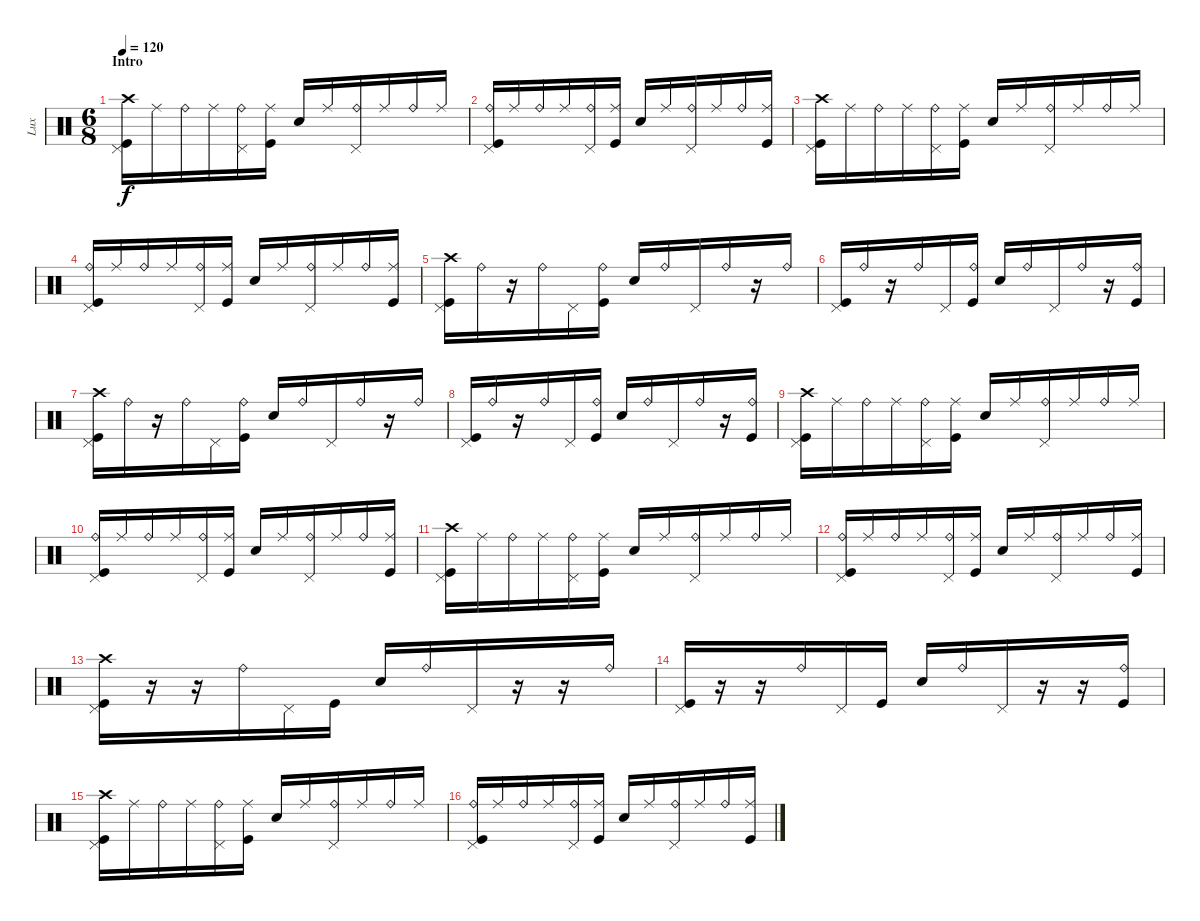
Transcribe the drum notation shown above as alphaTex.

\track ("Lux" "Lux") {instrument percussion}
\staff {score}
\articulation defaults
\ts (6 8)
\section ("" "Intro")
\tempo 120
\clef neutral
\ks c
("Crash high (hit)" "Pedal Hi-Hat (hit)" "Kick (hit)").16{dy f} "Ride (middle)".16 "Ride (bell)".16 "Ride (middle)".16 ("Ride (bell)" "Pedal Hi-Hat (hit)").16 ("Ride (middle)" "Kick (hit)").16 "Snare (hit) 2".16 "Ride (middle)".16 ("Ride (bell)" "Pedal Hi-Hat (hit)").16 "Ride (middle)".16 "Ride (bell)".16 "Ride (middle)".16 |
("Ride (bell)" "Pedal Hi-Hat (hit)" "Kick (hit)").16 "Ride (middle)".16 "Ride (bell)".16 "Ride (middle)".16 ("Ride (bell)" "Pedal Hi-Hat (hit)").16 ("Ride (middle)" "Kick (hit)").16 "Snare (hit) 2".16 "Ride (middle)".16 ("Ride (bell)" "Pedal Hi-Hat (hit)").16 "Ride (middle)".16 "Ride (bell)".16 ("Ride (middle)" "Kick (hit)").16 |
("Crash high (hit)" "Pedal Hi-Hat (hit)" "Kick (hit)").16 "Ride (middle)".16 "Ride (bell)".16 "Ride (middle)".16 ("Ride (bell)" "Pedal Hi-Hat (hit)").16 ("Ride (middle)" "Kick (hit)").16 "Snare (hit) 2".16 "Ride (middle)".16 ("Ride (bell)" "Pedal Hi-Hat (hit)").16 "Ride (middle)".16 "Ride (bell)".16 "Ride (middle)".16 |
("Ride (bell)" "Pedal Hi-Hat (hit)" "Kick (hit)").16 "Ride (middle)".16 "Ride (bell)".16 "Ride (middle)".16 ("Ride (bell)" "Pedal Hi-Hat (hit)").16 ("Ride (middle)" "Kick (hit)").16 "Snare (hit) 2".16 "Ride (middle)".16 ("Ride (bell)" "Pedal Hi-Hat (hit)").16 "Ride (middle)".16 "Ride (bell)".16 ("Ride (middle)" "Kick (hit)").16 |
("Crash high (hit)" "Pedal Hi-Hat (hit)" "Kick (hit)").16 "Ride (bell)".16 r.16 "Ride (bell)".16 "Pedal Hi-Hat (hit)".16 ("Ride (bell)" "Kick (hit)").16 "Snare (hit) 2".16 "Ride (bell)".16 "Pedal Hi-Hat (hit)".16 "Ride (bell)".16 r.16 "Ride (bell)".16 |
("Pedal Hi-Hat (hit)" "Kick (hit)").16 "Ride (bell)".16 r.16 "Ride (bell)".16 "Pedal Hi-Hat (hit)".16 ("Ride (bell)" "Kick (hit)").16 "Snare (hit) 2".16 "Ride (bell)".16 "Pedal Hi-Hat (hit)".16 "Ride (bell)".16 r.16 ("Ride (bell)" "Kick (hit)").16 |
("Crash high (hit)" "Pedal Hi-Hat (hit)" "Kick (hit)").16 "Ride (bell)".16 r.16 "Ride (bell)".16 "Pedal Hi-Hat (hit)".16 ("Ride (bell)" "Kick (hit)").16 "Snare (hit) 2".16 "Ride (bell)".16 "Pedal Hi-Hat (hit)".16 "Ride (bell)".16 r.16 "Ride (bell)".16 |
("Pedal Hi-Hat (hit)" "Kick (hit)").16 "Ride (bell)".16 r.16 "Ride (bell)".16 "Pedal Hi-Hat (hit)".16 ("Ride (bell)" "Kick (hit)").16 "Snare (hit) 2".16 "Ride (bell)".16 "Pedal Hi-Hat (hit)".16 "Ride (bell)".16 r.16 ("Ride (bell)" "Kick (hit)").16 |
("Crash high (hit)" "Pedal Hi-Hat (hit)" "Kick (hit)").16 "Ride (middle)".16 "Ride (bell)".16 "Ride (middle)".16 ("Ride (bell)" "Pedal Hi-Hat (hit)").16 ("Ride (middle)" "Kick (hit)").16 "Snare (hit) 2".16 "Ride (middle)".16 ("Ride (bell)" "Pedal Hi-Hat (hit)").16 "Ride (middle)".16 "Ride (bell)".16 "Ride (middle)".16 |
("Ride (bell)" "Pedal Hi-Hat (hit)" "Kick (hit)").16 "Ride (middle)".16 "Ride (bell)".16 "Ride (middle)".16 ("Ride (bell)" "Pedal Hi-Hat (hit)").16 ("Ride (middle)" "Kick (hit)").16 "Snare (hit) 2".16 "Ride (middle)".16 ("Ride (bell)" "Pedal Hi-Hat (hit)").16 "Ride (middle)".16 "Ride (bell)".16 ("Ride (middle)" "Kick (hit)").16 |
("Crash high (hit)" "Pedal Hi-Hat (hit)" "Kick (hit)").16 "Ride (middle)".16 "Ride (bell)".16 "Ride (middle)".16 ("Ride (bell)" "Pedal Hi-Hat (hit)").16 ("Ride (middle)" "Kick (hit)").16 "Snare (hit) 2".16 "Ride (middle)".16 ("Ride (bell)" "Pedal Hi-Hat (hit)").16 "Ride (middle)".16 "Ride (bell)".16 "Ride (middle)".16 |
("Ride (bell)" "Pedal Hi-Hat (hit)" "Kick (hit)").16 "Ride (middle)".16 "Ride (bell)".16 "Ride (middle)".16 ("Ride (bell)" "Pedal Hi-Hat (hit)").16 ("Ride (middle)" "Kick (hit)").16 "Snare (hit) 2".16 "Ride (middle)".16 ("Ride (bell)" "Pedal Hi-Hat (hit)").16 "Ride (middle)".16 "Ride (bell)".16 ("Ride (middle)" "Kick (hit)").16 |
("Crash high (hit)" "Pedal Hi-Hat (hit)" "Kick (hit)").16 r.16 r.16 "Ride (bell)".16 "Pedal Hi-Hat (hit)".16 "Kick (hit)".16 "Snare (hit) 2".16 "Ride (bell)".16 "Pedal Hi-Hat (hit)".16 r.16 r.16 "Ride (bell)".16 |
("Pedal Hi-Hat (hit)" "Kick (hit)").16 r.16 r.16 "Ride (bell)".16 "Pedal Hi-Hat (hit)".16 "Kick (hit)".16 "Snare (hit) 2".16 "Ride (bell)".16 "Pedal Hi-Hat (hit)".16 r.16 r.16 ("Ride (bell)" "Kick (hit)").16 |
("Crash high (hit)" "Pedal Hi-Hat (hit)" "Kick (hit)").16 "Ride (middle)".16 "Ride (bell)".16 "Ride (middle)".16 ("Ride (bell)" "Pedal Hi-Hat (hit)").16 ("Ride (middle)" "Kick (hit)").16 "Snare (hit) 2".16 "Ride (middle)".16 ("Ride (bell)" "Pedal Hi-Hat (hit)").16 "Ride (middle)".16 "Ride (bell)".16 "Ride (middle)".16 |
("Ride (bell)" "Pedal Hi-Hat (hit)" "Kick (hit)").16 "Ride (middle)".16 "Ride (bell)".16 "Ride (middle)".16 ("Ride (bell)" "Pedal Hi-Hat (hit)").16 ("Ride (middle)" "Kick (hit)").16 "Snare (hit) 2".16 "Ride (middle)".16 ("Ride (bell)" "Pedal Hi-Hat (hit)").16 "Ride (middle)".16 "Ride (bell)".16 ("Ride (middle)" "Kick (hit)").16
